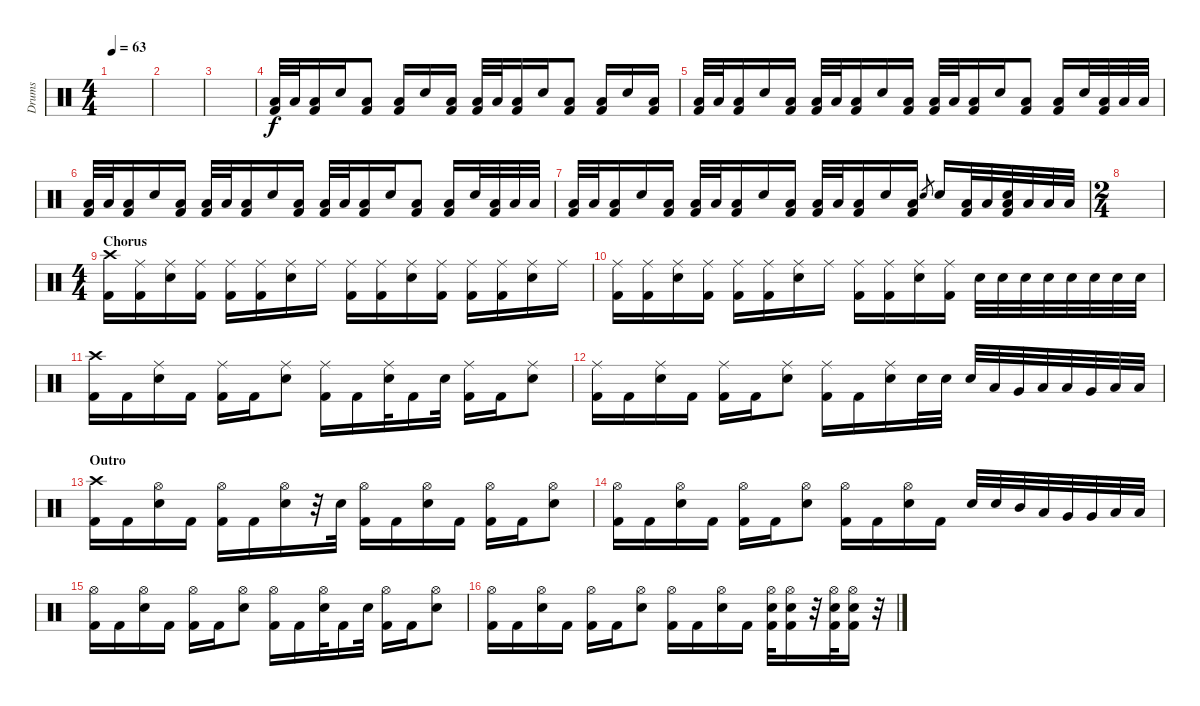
\track ("Drums" "Drums") {instrument percussion}
\staff {score}
\articulation defaults
\ts (4 4)
\tempo 63
\clef neutral
\ks c
|
|
|
("Low Floor Tom (hit)" "Kick (hit) 2").32 "Low Floor Tom (hit)".32 ("Low Floor Tom (hit)" "Kick (hit) 2").16 "Electric Snare (hit)".16 ("Low Floor Tom (hit)" "Kick (hit) 2").8 ("Low Floor Tom (hit)" "Kick (hit) 2").16 "Electric Snare (hit)".16 ("Low Floor Tom (hit)" "Kick (hit) 2").16 ("Low Floor Tom (hit)" "Kick (hit) 2").32 "Low Floor Tom (hit)".32 ("Low Floor Tom (hit)" "Kick (hit) 2").16 "Electric Snare (hit)".16 ("Low Floor Tom (hit)" "Kick (hit) 2").8 ("Low Floor Tom (hit)" "Kick (hit) 2").16 "Electric Snare (hit)".16 ("Low Floor Tom (hit)" "Kick (hit) 2").16 |
("Low Floor Tom (hit)" "Kick (hit) 2").32 "Low Floor Tom (hit)".32 ("Low Floor Tom (hit)" "Kick (hit) 2").16 "Electric Snare (hit)".16 ("Low Floor Tom (hit)" "Kick (hit) 2").16 ("Low Floor Tom (hit)" "Kick (hit) 2").32 "Low Floor Tom (hit)".32 ("Low Floor Tom (hit)" "Kick (hit) 2").16 "Electric Snare (hit)".16 ("Low Floor Tom (hit)" "Kick (hit) 2").16 ("Low Floor Tom (hit)" "Kick (hit) 2").32 "Low Floor Tom (hit)".32 ("Low Floor Tom (hit)" "Kick (hit) 2").16 "Electric Snare (hit)".16 ("Low Floor Tom (hit)" "Kick (hit) 2").8 ("Low Floor Tom (hit)" "Kick (hit) 2").16 "Electric Snare (hit)".32 ("Low Floor Tom (hit)" "Kick (hit) 2").32 "Low Floor Tom (hit)".32 "Low Floor Tom (hit)".32 |
("Low Floor Tom (hit)" "Kick (hit) 2").32 "Low Floor Tom (hit)".32 ("Low Floor Tom (hit)" "Kick (hit) 2").16 "Electric Snare (hit)".16 ("Low Floor Tom (hit)" "Kick (hit) 2").16 ("Low Floor Tom (hit)" "Kick (hit) 2").32 "Low Floor Tom (hit)".32 ("Low Floor Tom (hit)" "Kick (hit) 2").16 "Electric Snare (hit)".16 ("Low Floor Tom (hit)" "Kick (hit) 2").16 ("Low Floor Tom (hit)" "Kick (hit) 2").32 "Low Floor Tom (hit)".32 ("Low Floor Tom (hit)" "Kick (hit) 2").16 "Electric Snare (hit)".16 ("Low Floor Tom (hit)" "Kick (hit) 2").8 ("Low Floor Tom (hit)" "Kick (hit) 2").16 "Electric Snare (hit)".32 ("Low Floor Tom (hit)" "Kick (hit) 2").32 "Low Floor Tom (hit)".32 "Low Floor Tom (hit)".32 |
("Low Floor Tom (hit)" "Kick (hit) 2").32 "Low Floor Tom (hit)".32 ("Low Floor Tom (hit)" "Kick (hit) 2").16 "Electric Snare (hit)".16 ("Low Floor Tom (hit)" "Kick (hit) 2").16 ("Low Floor Tom (hit)" "Kick (hit) 2").32 "Low Floor Tom (hit)".32 ("Low Floor Tom (hit)" "Kick (hit) 2").16 "Electric Snare (hit)".16 ("Low Floor Tom (hit)" "Kick (hit) 2").16 ("Low Floor Tom (hit)" "Kick (hit) 2").32 "Low Floor Tom (hit)".32 ("Low Floor Tom (hit)" "Kick (hit) 2").16 "Electric Snare (hit)".16 ("Low Floor Tom (hit)" "Kick (hit) 2").16 "Electric Snare (hit)".8{gr} "Electric Snare (hit)".16 ("Low Floor Tom (hit)" "Kick (hit) 2").32 "Low Floor Tom (hit)".32 ("Electric Snare (hit)" "Low Floor Tom (hit)" "Kick (hit) 2").32 "Low Floor Tom (hit)".32 "Low Floor Tom (hit)".32 "Low Floor Tom (hit)".32 |
\ts (2 4)
|
\ts (4 4)
\section ("" "Chorus")
("Crash high (hit)" "Kick (hit) 2").16 ("Ride (middle)" "Kick (hit) 2").16 ("Ride (middle)" "Electric Snare (hit)").16 ("Ride (middle)" "Kick (hit) 2").16 ("Ride (middle)" "Kick (hit) 2").16 ("Ride (middle)" "Kick (hit) 2").16 ("Ride (middle)" "Electric Snare (hit)").16 "Ride (middle)".16 ("Ride (middle)" "Kick (hit) 2").16 ("Ride (middle)" "Kick (hit) 2").16 ("Ride (middle)" "Electric Snare (hit)").16 ("Ride (middle)" "Kick (hit) 2").16 ("Ride (middle)" "Kick (hit) 2").16 ("Ride (middle)" "Kick (hit) 2").16 ("Ride (middle)" "Electric Snare (hit)").16 "Ride (middle)".16 |
("Ride (middle)" "Kick (hit) 2").16 ("Ride (middle)" "Kick (hit) 2").16 ("Ride (middle)" "Electric Snare (hit)").16 ("Ride (middle)" "Kick (hit) 2").16 ("Ride (middle)" "Kick (hit) 2").16 ("Ride (middle)" "Kick (hit) 2").16 ("Ride (middle)" "Electric Snare (hit)").16 "Ride (middle)".16 ("Ride (middle)" "Kick (hit) 2").16 ("Ride (middle)" "Kick (hit) 2").16 ("Ride (middle)" "Electric Snare (hit)").16 ("Ride (middle)" "Kick (hit) 2").16 "Electric Snare (hit)".32 "Electric Snare (hit)".32 "Electric Snare (hit)".32 "Electric Snare (hit)".32 "Electric Snare (hit)".32 "Electric Snare (hit)".32 "Electric Snare (hit)".32 "Electric Snare (hit)".32 |
("Crash high (hit)" "Kick (hit) 2").16 "Kick (hit) 2".16 ("Ride (middle)" "Electric Snare (hit)").16 "Kick (hit) 2".16 ("Ride (middle)" "Kick (hit) 2").16 "Kick (hit) 2".16 ("Ride (middle)" "Electric Snare (hit)").8 ("Ride (middle)" "Kick (hit) 2").16 "Kick (hit) 2".16 ("Ride (middle)" "Electric Snare (hit)").32 "Kick (hit) 2".16 "Electric Snare (hit)".32 ("Ride (middle)" "Kick (hit) 2").16 "Kick (hit) 2".16 ("Ride (middle)" "Electric Snare (hit)").8 |
("Ride (middle)" "Kick (hit) 2").16 "Kick (hit) 2".16 ("Ride (middle)" "Electric Snare (hit)").16 "Kick (hit) 2".16 ("Ride (middle)" "Kick (hit) 2").16 "Kick (hit) 2".16 ("Ride (middle)" "Electric Snare (hit)").8 ("Ride (middle)" "Kick (hit) 2").16 "Kick (hit) 2".16 ("Ride (middle)" "Electric Snare (hit)").16 "Electric Snare (hit)".32 "Electric Snare (hit)".32 "Electric Snare (hit)".32 "Low Tom (hit)".32 "Very Low Tom (hit)".32 "Low Floor Tom (hit)".32 "Low Tom (hit)".32 "Very Low Tom (hit)".32 "Low Floor Tom (hit)".32 "Low Floor Tom (hit)".32 |
\section ("" "Outro")
("Crash high (hit)" "Kick (hit) 2").16 "Kick (hit) 2".16 ("Hi-Hat (open)" "Electric Snare (hit)").16 "Kick (hit) 2".16 ("Hi-Hat (open)" "Kick (hit) 2").16 "Kick (hit) 2".16 ("Hi-Hat (open)" "Electric Snare (hit)").16 r.32 "Electric Snare (hit)".32 ("Hi-Hat (open)" "Kick (hit) 2").16 "Kick (hit) 2".16 ("Hi-Hat (open)" "Electric Snare (hit)").16 "Kick (hit) 2".16 ("Hi-Hat (open)" "Kick (hit) 2").16 "Kick (hit) 2".16 ("Hi-Hat (open)" "Electric Snare (hit)").8 |
("Hi-Hat (open)" "Kick (hit) 2").16 "Kick (hit) 2".16 ("Hi-Hat (open)" "Electric Snare (hit)").16 "Kick (hit) 2".16 ("Hi-Hat (open)" "Kick (hit) 2").16 "Kick (hit) 2".16 ("Hi-Hat (open)" "Electric Snare (hit)").8 ("Hi-Hat (open)" "Kick (hit) 2").16 "Kick (hit) 2".16 ("Hi-Hat (open)" "Electric Snare (hit)").16 "Kick (hit) 2".16 "Electric Snare (hit)".32 "Electric Snare (hit)".32 "Mid Tom (hit)".32 "Low Tom (hit)".32 "Very Low Tom (hit)".32 "Very Low Tom (hit)".32 "Low Floor Tom (hit)".32 "Low Floor Tom (hit)".32 |
("Hi-Hat (open)" "Kick (hit) 2").16 "Kick (hit) 2".16 ("Hi-Hat (open)" "Electric Snare (hit)").16 "Kick (hit) 2".16 ("Hi-Hat (open)" "Kick (hit) 2").16 "Kick (hit) 2".16 ("Hi-Hat (open)" "Electric Snare (hit)").8 ("Hi-Hat (open)" "Kick (hit) 2").16 "Kick (hit) 2".16 ("Hi-Hat (open)" "Electric Snare (hit)").32 "Kick (hit) 2".16 "Electric Snare (hit)".32 ("Hi-Hat (open)" "Kick (hit) 2").16 "Kick (hit) 2".16 ("Hi-Hat (open)" "Electric Snare (hit)").8 |
("Hi-Hat (open)" "Kick (hit) 2").16 "Kick (hit) 2".16 ("Hi-Hat (open)" "Electric Snare (hit)").16 "Kick (hit) 2".16 ("Hi-Hat (open)" "Kick (hit) 2").16 "Kick (hit) 2".16 ("Hi-Hat (open)" "Electric Snare (hit)").8 ("Hi-Hat (open)" "Kick (hit) 2").16 "Kick (hit) 2".16 ("Hi-Hat (open)" "Electric Snare (hit)").16 "Kick (hit) 2".16 ("Hi-Hat (open)" "Electric Snare (hit)" "Kick (hit) 2").32 ("Hi-Hat (open)" "Electric Snare (hit)" "Kick (hit) 2").16 r.32 ("Hi-Hat (open)" "Electric Snare (hit)" "Kick (hit) 2").32 ("Hi-Hat (open)" "Electric Snare (hit)" "Kick (hit) 2").16 r.32
